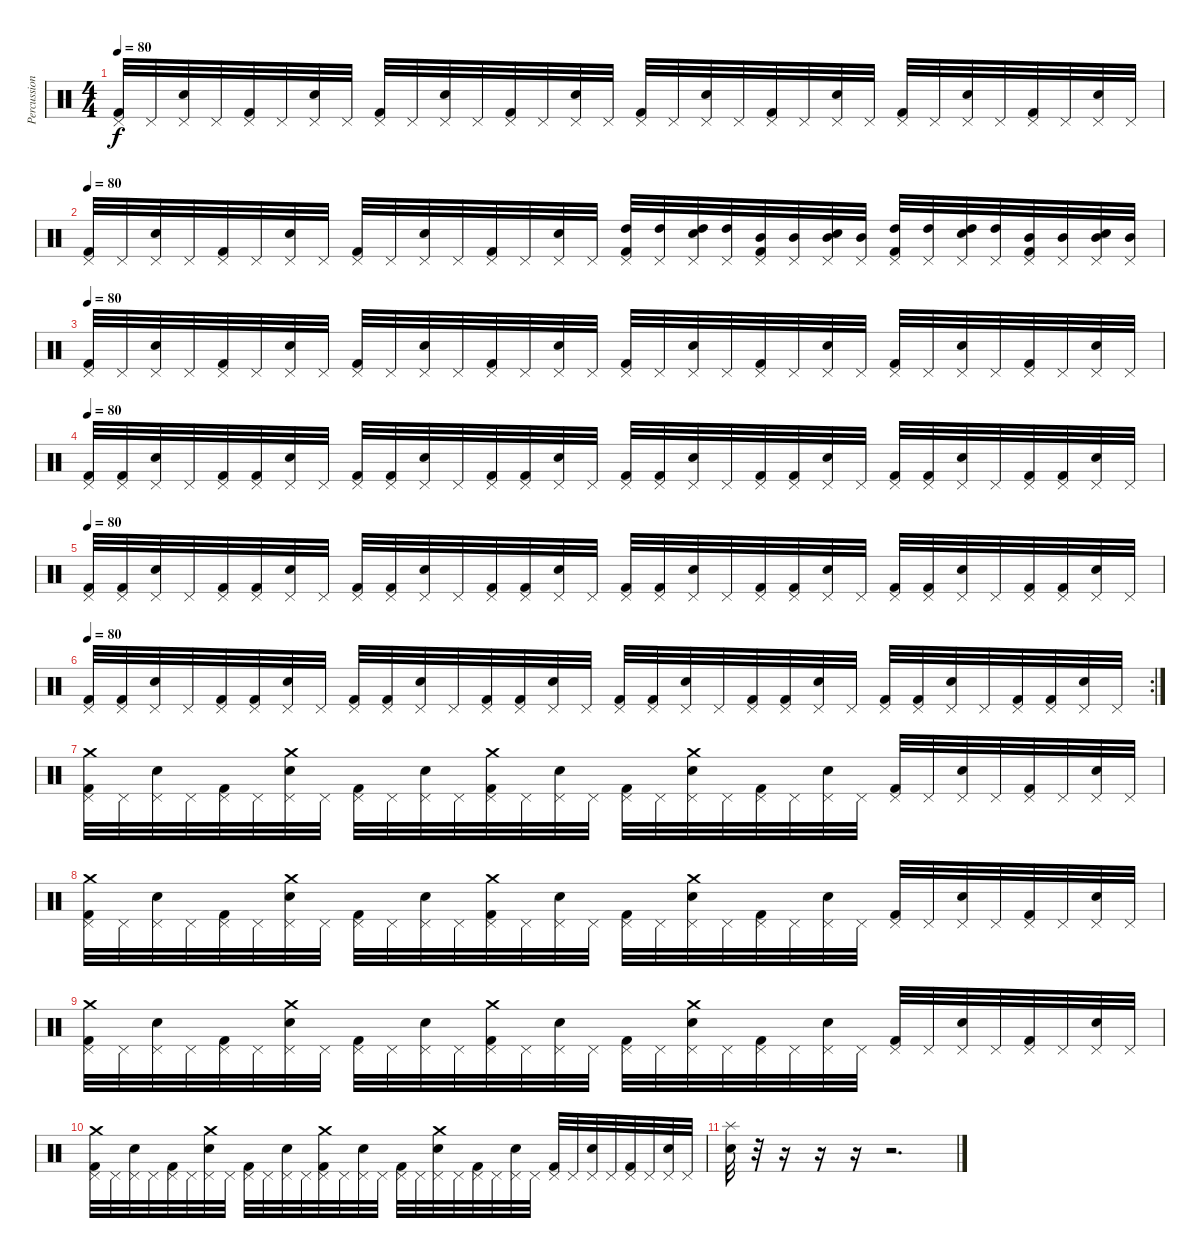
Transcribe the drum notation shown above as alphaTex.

\track ("Percussion" "Percussion") {instrument percussion}
\staff {score}
\articulation defaults
\ts (4 4)
\tempo 80
\clef neutral
\ks c
("Kick (hit) 2" "Pedal Hi-Hat (hit)").32{dy f} "Pedal Hi-Hat (hit)".32 ("Pedal Hi-Hat (hit)" "Electric Snare (hit)").32 "Pedal Hi-Hat (hit)".32 ("Kick (hit) 2" "Pedal Hi-Hat (hit)").32 "Pedal Hi-Hat (hit)".32 ("Pedal Hi-Hat (hit)" "Electric Snare (hit)").32 "Pedal Hi-Hat (hit)".32 ("Kick (hit) 2" "Pedal Hi-Hat (hit)").32 "Pedal Hi-Hat (hit)".32 ("Pedal Hi-Hat (hit)" "Electric Snare (hit)").32 "Pedal Hi-Hat (hit)".32 ("Kick (hit) 2" "Pedal Hi-Hat (hit)").32 "Pedal Hi-Hat (hit)".32 ("Pedal Hi-Hat (hit)" "Electric Snare (hit)").32 "Pedal Hi-Hat (hit)".32 ("Kick (hit) 2" "Pedal Hi-Hat (hit)").32 "Pedal Hi-Hat (hit)".32 ("Pedal Hi-Hat (hit)" "Electric Snare (hit)").32 "Pedal Hi-Hat (hit)".32 ("Kick (hit) 2" "Pedal Hi-Hat (hit)").32 "Pedal Hi-Hat (hit)".32 ("Pedal Hi-Hat (hit)" "Electric Snare (hit)").32 "Pedal Hi-Hat (hit)".32 ("Kick (hit) 2" "Pedal Hi-Hat (hit)").32 "Pedal Hi-Hat (hit)".32 ("Pedal Hi-Hat (hit)" "Electric Snare (hit)").32 "Pedal Hi-Hat (hit)".32 ("Kick (hit) 2" "Pedal Hi-Hat (hit)").32 "Pedal Hi-Hat (hit)".32 ("Pedal Hi-Hat (hit)" "Electric Snare (hit)").32 "Pedal Hi-Hat (hit)".32 |
\tempo 80
("Kick (hit) 2" "Pedal Hi-Hat (hit)").32 "Pedal Hi-Hat (hit)".32 ("Pedal Hi-Hat (hit)" "Electric Snare (hit)").32 "Pedal Hi-Hat (hit)".32 ("Kick (hit) 2" "Pedal Hi-Hat (hit)").32 "Pedal Hi-Hat (hit)".32 ("Pedal Hi-Hat (hit)" "Electric Snare (hit)").32 "Pedal Hi-Hat (hit)".32 ("Kick (hit) 2" "Pedal Hi-Hat (hit)").32 "Pedal Hi-Hat (hit)".32 ("Pedal Hi-Hat (hit)" "Electric Snare (hit)").32 "Pedal Hi-Hat (hit)".32 ("Kick (hit) 2" "Pedal Hi-Hat (hit)").32 "Pedal Hi-Hat (hit)".32 ("Pedal Hi-Hat (hit)" "Electric Snare (hit)").32 "Pedal Hi-Hat (hit)".32 ("Kick (hit) 2" "Pedal Hi-Hat (hit)" "High Tom (hit)").32 ("Pedal Hi-Hat (hit)" "High Tom (hit)").32 ("Pedal Hi-Hat (hit)" "Electric Snare (hit)" "High Tom (hit)").32 ("Pedal Hi-Hat (hit)" "High Tom (hit)").32 ("Kick (hit) 2" "Pedal Hi-Hat (hit)" "Mid Tom (hit)").32 ("Pedal Hi-Hat (hit)" "Mid Tom (hit)").32 ("Pedal Hi-Hat (hit)" "Electric Snare (hit)" "Mid Tom (hit)").32 ("Pedal Hi-Hat (hit)" "Mid Tom (hit)").32 ("Kick (hit) 2" "Pedal Hi-Hat (hit)" "High Tom (hit)").32 ("Pedal Hi-Hat (hit)" "High Tom (hit)").32 ("Pedal Hi-Hat (hit)" "Electric Snare (hit)" "High Tom (hit)").32 ("Pedal Hi-Hat (hit)" "High Tom (hit)").32 ("Kick (hit) 2" "Pedal Hi-Hat (hit)" "Mid Tom (hit)").32 ("Pedal Hi-Hat (hit)" "Mid Tom (hit)").32 ("Pedal Hi-Hat (hit)" "Electric Snare (hit)" "Mid Tom (hit)").32 ("Pedal Hi-Hat (hit)" "Mid Tom (hit)").32 |
\tempo 80
("Kick (hit) 2" "Pedal Hi-Hat (hit)").32 "Pedal Hi-Hat (hit)".32 ("Pedal Hi-Hat (hit)" "Electric Snare (hit)").32 "Pedal Hi-Hat (hit)".32 ("Kick (hit) 2" "Pedal Hi-Hat (hit)").32 "Pedal Hi-Hat (hit)".32 ("Pedal Hi-Hat (hit)" "Electric Snare (hit)").32 "Pedal Hi-Hat (hit)".32 ("Kick (hit) 2" "Pedal Hi-Hat (hit)").32 "Pedal Hi-Hat (hit)".32 ("Pedal Hi-Hat (hit)" "Electric Snare (hit)").32 "Pedal Hi-Hat (hit)".32 ("Kick (hit) 2" "Pedal Hi-Hat (hit)").32 "Pedal Hi-Hat (hit)".32 ("Pedal Hi-Hat (hit)" "Electric Snare (hit)").32 "Pedal Hi-Hat (hit)".32 ("Kick (hit) 2" "Pedal Hi-Hat (hit)").32 "Pedal Hi-Hat (hit)".32 ("Pedal Hi-Hat (hit)" "Electric Snare (hit)").32 "Pedal Hi-Hat (hit)".32 ("Kick (hit) 2" "Pedal Hi-Hat (hit)").32 "Pedal Hi-Hat (hit)".32 ("Pedal Hi-Hat (hit)" "Electric Snare (hit)").32 "Pedal Hi-Hat (hit)".32 ("Kick (hit) 2" "Pedal Hi-Hat (hit)").32 "Pedal Hi-Hat (hit)".32 ("Pedal Hi-Hat (hit)" "Electric Snare (hit)").32 "Pedal Hi-Hat (hit)".32 ("Kick (hit) 2" "Pedal Hi-Hat (hit)").32 "Pedal Hi-Hat (hit)".32 ("Pedal Hi-Hat (hit)" "Electric Snare (hit)").32 "Pedal Hi-Hat (hit)".32 |
\tempo 80
("Kick (hit) 2" "Pedal Hi-Hat (hit)").32 ("Kick (hit) 2" "Pedal Hi-Hat (hit)").32 ("Pedal Hi-Hat (hit)" "Electric Snare (hit)").32 "Pedal Hi-Hat (hit)".32 ("Kick (hit) 2" "Pedal Hi-Hat (hit)").32 ("Kick (hit) 2" "Pedal Hi-Hat (hit)").32 ("Pedal Hi-Hat (hit)" "Electric Snare (hit)").32 "Pedal Hi-Hat (hit)".32 ("Kick (hit) 2" "Pedal Hi-Hat (hit)").32 ("Kick (hit) 2" "Pedal Hi-Hat (hit)").32 ("Pedal Hi-Hat (hit)" "Electric Snare (hit)").32 "Pedal Hi-Hat (hit)".32 ("Kick (hit) 2" "Pedal Hi-Hat (hit)").32 ("Kick (hit) 2" "Pedal Hi-Hat (hit)").32 ("Pedal Hi-Hat (hit)" "Electric Snare (hit)").32 "Pedal Hi-Hat (hit)".32 ("Kick (hit) 2" "Pedal Hi-Hat (hit)").32 ("Kick (hit) 2" "Pedal Hi-Hat (hit)").32 ("Pedal Hi-Hat (hit)" "Electric Snare (hit)").32 "Pedal Hi-Hat (hit)".32 ("Kick (hit) 2" "Pedal Hi-Hat (hit)").32 ("Kick (hit) 2" "Pedal Hi-Hat (hit)").32 ("Pedal Hi-Hat (hit)" "Electric Snare (hit)").32 "Pedal Hi-Hat (hit)".32 ("Kick (hit) 2" "Pedal Hi-Hat (hit)").32 ("Kick (hit) 2" "Pedal Hi-Hat (hit)").32 ("Pedal Hi-Hat (hit)" "Electric Snare (hit)").32 "Pedal Hi-Hat (hit)".32 ("Kick (hit) 2" "Pedal Hi-Hat (hit)").32 ("Kick (hit) 2" "Pedal Hi-Hat (hit)").32 ("Pedal Hi-Hat (hit)" "Electric Snare (hit)").32 "Pedal Hi-Hat (hit)".32 |
\tempo 80
("Kick (hit) 2" "Pedal Hi-Hat (hit)").32 ("Kick (hit) 2" "Pedal Hi-Hat (hit)").32 ("Pedal Hi-Hat (hit)" "Electric Snare (hit)").32 "Pedal Hi-Hat (hit)".32 ("Kick (hit) 2" "Pedal Hi-Hat (hit)").32 ("Kick (hit) 2" "Pedal Hi-Hat (hit)").32 ("Pedal Hi-Hat (hit)" "Electric Snare (hit)").32 "Pedal Hi-Hat (hit)".32 ("Kick (hit) 2" "Pedal Hi-Hat (hit)").32 ("Kick (hit) 2" "Pedal Hi-Hat (hit)").32 ("Pedal Hi-Hat (hit)" "Electric Snare (hit)").32 "Pedal Hi-Hat (hit)".32 ("Kick (hit) 2" "Pedal Hi-Hat (hit)").32 ("Kick (hit) 2" "Pedal Hi-Hat (hit)").32 ("Pedal Hi-Hat (hit)" "Electric Snare (hit)").32 "Pedal Hi-Hat (hit)".32 ("Kick (hit) 2" "Pedal Hi-Hat (hit)").32 ("Kick (hit) 2" "Pedal Hi-Hat (hit)").32 ("Pedal Hi-Hat (hit)" "Electric Snare (hit)").32 "Pedal Hi-Hat (hit)".32 ("Kick (hit) 2" "Pedal Hi-Hat (hit)").32 ("Kick (hit) 2" "Pedal Hi-Hat (hit)").32 ("Pedal Hi-Hat (hit)" "Electric Snare (hit)").32 "Pedal Hi-Hat (hit)".32 ("Kick (hit) 2" "Pedal Hi-Hat (hit)").32 ("Kick (hit) 2" "Pedal Hi-Hat (hit)").32 ("Pedal Hi-Hat (hit)" "Electric Snare (hit)").32 "Pedal Hi-Hat (hit)".32 ("Kick (hit) 2" "Pedal Hi-Hat (hit)").32 ("Kick (hit) 2" "Pedal Hi-Hat (hit)").32 ("Pedal Hi-Hat (hit)" "Electric Snare (hit)").32 "Pedal Hi-Hat (hit)".32 |
\rc 2
\tempo 80
("Kick (hit) 2" "Pedal Hi-Hat (hit)").32 ("Kick (hit) 2" "Pedal Hi-Hat (hit)").32 ("Pedal Hi-Hat (hit)" "Electric Snare (hit)").32 "Pedal Hi-Hat (hit)".32 ("Kick (hit) 2" "Pedal Hi-Hat (hit)").32 ("Kick (hit) 2" "Pedal Hi-Hat (hit)").32 ("Pedal Hi-Hat (hit)" "Electric Snare (hit)").32 "Pedal Hi-Hat (hit)".32 ("Kick (hit) 2" "Pedal Hi-Hat (hit)").32 ("Kick (hit) 2" "Pedal Hi-Hat (hit)").32 ("Pedal Hi-Hat (hit)" "Electric Snare (hit)").32 "Pedal Hi-Hat (hit)".32 ("Kick (hit) 2" "Pedal Hi-Hat (hit)").32 ("Kick (hit) 2" "Pedal Hi-Hat (hit)").32 ("Pedal Hi-Hat (hit)" "Electric Snare (hit)").32 "Pedal Hi-Hat (hit)".32 ("Kick (hit) 2" "Pedal Hi-Hat (hit)").32 ("Kick (hit) 2" "Pedal Hi-Hat (hit)").32 ("Pedal Hi-Hat (hit)" "Electric Snare (hit)").32 "Pedal Hi-Hat (hit)".32 ("Kick (hit) 2" "Pedal Hi-Hat (hit)").32 ("Kick (hit) 2" "Pedal Hi-Hat (hit)").32 ("Pedal Hi-Hat (hit)" "Electric Snare (hit)").32 "Pedal Hi-Hat (hit)".32 ("Kick (hit) 2" "Pedal Hi-Hat (hit)").32 ("Kick (hit) 2" "Pedal Hi-Hat (hit)").32 ("Pedal Hi-Hat (hit)" "Electric Snare (hit)").32 "Pedal Hi-Hat (hit)".32 ("Kick (hit) 2" "Pedal Hi-Hat (hit)").32 ("Kick (hit) 2" "Pedal Hi-Hat (hit)").32 ("Pedal Hi-Hat (hit)" "Electric Snare (hit)").32 "Pedal Hi-Hat (hit)".32 |
("Kick (hit) 2" "Pedal Hi-Hat (hit)" "Crash medium (hit)").32 "Pedal Hi-Hat (hit)".32 ("Pedal Hi-Hat (hit)" "Electric Snare (hit)").32 "Pedal Hi-Hat (hit)".32 ("Kick (hit) 2" "Pedal Hi-Hat (hit)").32 "Pedal Hi-Hat (hit)".32 ("Pedal Hi-Hat (hit)" "Electric Snare (hit)" "Crash medium (hit)").32 "Pedal Hi-Hat (hit)".32 ("Kick (hit) 2" "Pedal Hi-Hat (hit)").32 "Pedal Hi-Hat (hit)".32 ("Pedal Hi-Hat (hit)" "Electric Snare (hit)").32 "Pedal Hi-Hat (hit)".32 ("Kick (hit) 2" "Pedal Hi-Hat (hit)" "Crash medium (hit)").32 "Pedal Hi-Hat (hit)".32 ("Pedal Hi-Hat (hit)" "Electric Snare (hit)").32 "Pedal Hi-Hat (hit)".32 ("Kick (hit) 2" "Pedal Hi-Hat (hit)").32 "Pedal Hi-Hat (hit)".32 ("Pedal Hi-Hat (hit)" "Electric Snare (hit)" "Crash medium (hit)").32 "Pedal Hi-Hat (hit)".32 ("Kick (hit) 2" "Pedal Hi-Hat (hit)").32 "Pedal Hi-Hat (hit)".32 ("Pedal Hi-Hat (hit)" "Electric Snare (hit)").32 "Pedal Hi-Hat (hit)".32 ("Kick (hit) 2" "Pedal Hi-Hat (hit)").32 "Pedal Hi-Hat (hit)".32 ("Pedal Hi-Hat (hit)" "Electric Snare (hit)").32 "Pedal Hi-Hat (hit)".32 ("Kick (hit) 2" "Pedal Hi-Hat (hit)").32 "Pedal Hi-Hat (hit)".32 ("Pedal Hi-Hat (hit)" "Electric Snare (hit)").32 "Pedal Hi-Hat (hit)".32 |
("Kick (hit) 2" "Pedal Hi-Hat (hit)" "Crash medium (hit)").32 "Pedal Hi-Hat (hit)".32 ("Pedal Hi-Hat (hit)" "Electric Snare (hit)").32 "Pedal Hi-Hat (hit)".32 ("Kick (hit) 2" "Pedal Hi-Hat (hit)").32 "Pedal Hi-Hat (hit)".32 ("Pedal Hi-Hat (hit)" "Electric Snare (hit)" "Crash medium (hit)").32 "Pedal Hi-Hat (hit)".32 ("Kick (hit) 2" "Pedal Hi-Hat (hit)").32 "Pedal Hi-Hat (hit)".32 ("Pedal Hi-Hat (hit)" "Electric Snare (hit)").32 "Pedal Hi-Hat (hit)".32 ("Kick (hit) 2" "Pedal Hi-Hat (hit)" "Crash medium (hit)").32 "Pedal Hi-Hat (hit)".32 ("Pedal Hi-Hat (hit)" "Electric Snare (hit)").32 "Pedal Hi-Hat (hit)".32 ("Kick (hit) 2" "Pedal Hi-Hat (hit)").32 "Pedal Hi-Hat (hit)".32 ("Pedal Hi-Hat (hit)" "Electric Snare (hit)" "Crash medium (hit)").32 "Pedal Hi-Hat (hit)".32 ("Kick (hit) 2" "Pedal Hi-Hat (hit)").32 "Pedal Hi-Hat (hit)".32 ("Pedal Hi-Hat (hit)" "Electric Snare (hit)").32 "Pedal Hi-Hat (hit)".32 ("Kick (hit) 2" "Pedal Hi-Hat (hit)").32 "Pedal Hi-Hat (hit)".32 ("Pedal Hi-Hat (hit)" "Electric Snare (hit)").32 "Pedal Hi-Hat (hit)".32 ("Kick (hit) 2" "Pedal Hi-Hat (hit)").32 "Pedal Hi-Hat (hit)".32 ("Pedal Hi-Hat (hit)" "Electric Snare (hit)").32 "Pedal Hi-Hat (hit)".32 |
("Kick (hit) 2" "Pedal Hi-Hat (hit)" "Crash medium (hit)").32 "Pedal Hi-Hat (hit)".32 ("Pedal Hi-Hat (hit)" "Electric Snare (hit)").32 "Pedal Hi-Hat (hit)".32 ("Kick (hit) 2" "Pedal Hi-Hat (hit)").32 "Pedal Hi-Hat (hit)".32 ("Pedal Hi-Hat (hit)" "Electric Snare (hit)" "Crash medium (hit)").32 "Pedal Hi-Hat (hit)".32 ("Kick (hit) 2" "Pedal Hi-Hat (hit)").32 "Pedal Hi-Hat (hit)".32 ("Pedal Hi-Hat (hit)" "Electric Snare (hit)").32 "Pedal Hi-Hat (hit)".32 ("Kick (hit) 2" "Pedal Hi-Hat (hit)" "Crash medium (hit)").32 "Pedal Hi-Hat (hit)".32 ("Pedal Hi-Hat (hit)" "Electric Snare (hit)").32 "Pedal Hi-Hat (hit)".32 ("Kick (hit) 2" "Pedal Hi-Hat (hit)").32 "Pedal Hi-Hat (hit)".32 ("Pedal Hi-Hat (hit)" "Electric Snare (hit)" "Crash medium (hit)").32 "Pedal Hi-Hat (hit)".32 ("Kick (hit) 2" "Pedal Hi-Hat (hit)").32 "Pedal Hi-Hat (hit)".32 ("Pedal Hi-Hat (hit)" "Electric Snare (hit)").32 "Pedal Hi-Hat (hit)".32 ("Kick (hit) 2" "Pedal Hi-Hat (hit)").32 "Pedal Hi-Hat (hit)".32 ("Pedal Hi-Hat (hit)" "Electric Snare (hit)").32 "Pedal Hi-Hat (hit)".32 ("Kick (hit) 2" "Pedal Hi-Hat (hit)").32 "Pedal Hi-Hat (hit)".32 ("Pedal Hi-Hat (hit)" "Electric Snare (hit)").32 "Pedal Hi-Hat (hit)".32 |
("Kick (hit) 2" "Pedal Hi-Hat (hit)" "Crash medium (hit)").32 "Pedal Hi-Hat (hit)".32 ("Pedal Hi-Hat (hit)" "Electric Snare (hit)").32 "Pedal Hi-Hat (hit)".32 ("Kick (hit) 2" "Pedal Hi-Hat (hit)").32 "Pedal Hi-Hat (hit)".32 ("Pedal Hi-Hat (hit)" "Electric Snare (hit)" "Crash medium (hit)").32 "Pedal Hi-Hat (hit)".32 ("Kick (hit) 2" "Pedal Hi-Hat (hit)").32 "Pedal Hi-Hat (hit)".32 ("Pedal Hi-Hat (hit)" "Electric Snare (hit)").32 "Pedal Hi-Hat (hit)".32 ("Kick (hit) 2" "Pedal Hi-Hat (hit)" "Crash medium (hit)").32 "Pedal Hi-Hat (hit)".32 ("Pedal Hi-Hat (hit)" "Electric Snare (hit)").32 "Pedal Hi-Hat (hit)".32 ("Kick (hit) 2" "Pedal Hi-Hat (hit)").32 "Pedal Hi-Hat (hit)".32 ("Pedal Hi-Hat (hit)" "Electric Snare (hit)" "Crash medium (hit)").32 "Pedal Hi-Hat (hit)".32 ("Kick (hit) 2" "Pedal Hi-Hat (hit)").32 "Pedal Hi-Hat (hit)".32 ("Pedal Hi-Hat (hit)" "Electric Snare (hit)").32 "Pedal Hi-Hat (hit)".32 ("Kick (hit) 2" "Pedal Hi-Hat (hit)").32 "Pedal Hi-Hat (hit)".32 ("Pedal Hi-Hat (hit)" "Electric Snare (hit)").32 "Pedal Hi-Hat (hit)".32 ("Kick (hit) 2" "Pedal Hi-Hat (hit)").32 "Pedal Hi-Hat (hit)".32 ("Pedal Hi-Hat (hit)" "Electric Snare (hit)").32 "Pedal Hi-Hat (hit)".32 |
("Electric Snare (hit)" "Splash (hit)").32 r.32 r.16 r.16 r.16 r.2{d}
